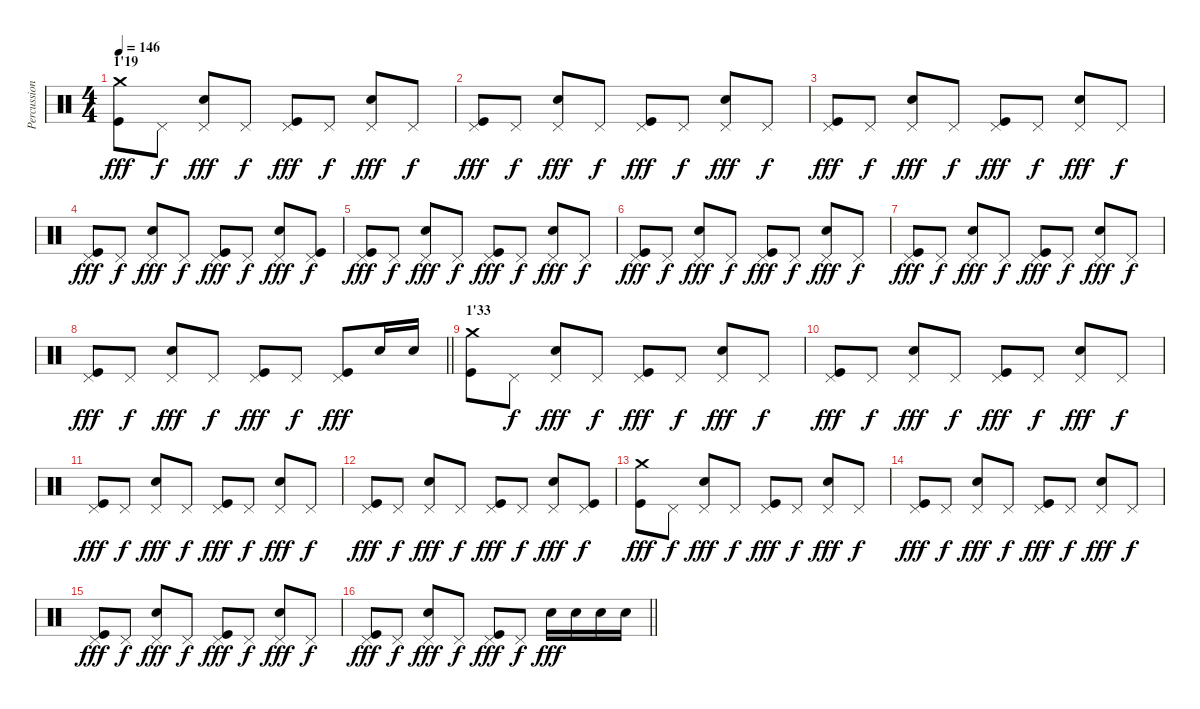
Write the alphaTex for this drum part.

\track ("Percussions" "Percussion") {instrument percussion}
\staff {score}
\articulation defaults
\ts (4 4)
\section ("" "1'19")
\tempo 146
\clef neutral
\ks c
("Crash medium (hit)" "Kick (hit)").8{dy fff} "Pedal Hi-Hat (hit)".8{dy f} ("Pedal Hi-Hat (hit)" "Snare (hit) 2").8{dy fff} "Pedal Hi-Hat (hit)".8{dy f} ("Pedal Hi-Hat (hit)" "Kick (hit)").8{dy fff} "Pedal Hi-Hat (hit)".8{dy f} ("Pedal Hi-Hat (hit)" "Snare (hit) 2").8{dy fff} "Pedal Hi-Hat (hit)".8{dy f} |
("Pedal Hi-Hat (hit)" "Kick (hit)").8{dy fff} "Pedal Hi-Hat (hit)".8{dy f} ("Pedal Hi-Hat (hit)" "Snare (hit) 2").8{dy fff} "Pedal Hi-Hat (hit)".8{dy f} ("Pedal Hi-Hat (hit)" "Kick (hit)").8{dy fff} "Pedal Hi-Hat (hit)".8{dy f} ("Pedal Hi-Hat (hit)" "Snare (hit) 2").8{dy fff} "Pedal Hi-Hat (hit)".8{dy f} |
("Pedal Hi-Hat (hit)" "Kick (hit)").8{dy fff} "Pedal Hi-Hat (hit)".8{dy f} ("Pedal Hi-Hat (hit)" "Snare (hit) 2").8{dy fff} "Pedal Hi-Hat (hit)".8{dy f} ("Pedal Hi-Hat (hit)" "Kick (hit)").8{dy fff} "Pedal Hi-Hat (hit)".8{dy f} ("Pedal Hi-Hat (hit)" "Snare (hit) 2").8{dy fff} "Pedal Hi-Hat (hit)".8{dy f} |
("Pedal Hi-Hat (hit)" "Kick (hit)").8{dy fff} "Pedal Hi-Hat (hit)".8{dy f} ("Pedal Hi-Hat (hit)" "Snare (hit) 2").8{dy fff} "Pedal Hi-Hat (hit)".8{dy f} ("Pedal Hi-Hat (hit)" "Kick (hit)").8{dy fff} "Pedal Hi-Hat (hit)".8{dy f} ("Pedal Hi-Hat (hit)" "Snare (hit) 2").8{dy fff} ("Pedal Hi-Hat (hit)" "Kick (hit)").8{dy f} |
("Pedal Hi-Hat (hit)" "Kick (hit)").8{dy fff} "Pedal Hi-Hat (hit)".8{dy f} ("Pedal Hi-Hat (hit)" "Snare (hit) 2").8{dy fff} "Pedal Hi-Hat (hit)".8{dy f} ("Pedal Hi-Hat (hit)" "Kick (hit)").8{dy fff} "Pedal Hi-Hat (hit)".8{dy f} ("Pedal Hi-Hat (hit)" "Snare (hit) 2").8{dy fff} "Pedal Hi-Hat (hit)".8{dy f} |
("Pedal Hi-Hat (hit)" "Kick (hit)").8{dy fff} "Pedal Hi-Hat (hit)".8{dy f} ("Pedal Hi-Hat (hit)" "Snare (hit) 2").8{dy fff} "Pedal Hi-Hat (hit)".8{dy f} ("Pedal Hi-Hat (hit)" "Kick (hit)").8{dy fff} "Pedal Hi-Hat (hit)".8{dy f} ("Pedal Hi-Hat (hit)" "Snare (hit) 2").8{dy fff} "Pedal Hi-Hat (hit)".8{dy f} |
("Pedal Hi-Hat (hit)" "Kick (hit)").8{dy fff} "Pedal Hi-Hat (hit)".8{dy f} ("Pedal Hi-Hat (hit)" "Snare (hit) 2").8{dy fff} "Pedal Hi-Hat (hit)".8{dy f} ("Pedal Hi-Hat (hit)" "Kick (hit)").8{dy fff} "Pedal Hi-Hat (hit)".8{dy f} ("Pedal Hi-Hat (hit)" "Snare (hit) 2").8{dy fff} "Pedal Hi-Hat (hit)".8{dy f} |
\barLineRight lightlight
("Pedal Hi-Hat (hit)" "Kick (hit)").8{dy fff} "Pedal Hi-Hat (hit)".8{dy f} ("Pedal Hi-Hat (hit)" "Snare (hit) 2").8{dy fff} "Pedal Hi-Hat (hit)".8{dy f} ("Pedal Hi-Hat (hit)" "Kick (hit)").8{dy fff} "Pedal Hi-Hat (hit)".8{dy f} ("Pedal Hi-Hat (hit)" "Kick (hit)").8{dy fff} "Snare (hit) 2".16 "Snare (hit) 2".16 |
\section ("" "1'33")
("Crash medium (hit)" "Kick (hit)").8 "Pedal Hi-Hat (hit)".8{dy f} ("Pedal Hi-Hat (hit)" "Snare (hit) 2").8{dy fff} "Pedal Hi-Hat (hit)".8{dy f} ("Pedal Hi-Hat (hit)" "Kick (hit)").8{dy fff} "Pedal Hi-Hat (hit)".8{dy f} ("Pedal Hi-Hat (hit)" "Snare (hit) 2").8{dy fff} "Pedal Hi-Hat (hit)".8{dy f} |
("Pedal Hi-Hat (hit)" "Kick (hit)").8{dy fff} "Pedal Hi-Hat (hit)".8{dy f} ("Pedal Hi-Hat (hit)" "Snare (hit) 2").8{dy fff} "Pedal Hi-Hat (hit)".8{dy f} ("Pedal Hi-Hat (hit)" "Kick (hit)").8{dy fff} "Pedal Hi-Hat (hit)".8{dy f} ("Pedal Hi-Hat (hit)" "Snare (hit) 2").8{dy fff} "Pedal Hi-Hat (hit)".8{dy f} |
("Pedal Hi-Hat (hit)" "Kick (hit)").8{dy fff} "Pedal Hi-Hat (hit)".8{dy f} ("Pedal Hi-Hat (hit)" "Snare (hit) 2").8{dy fff} "Pedal Hi-Hat (hit)".8{dy f} ("Pedal Hi-Hat (hit)" "Kick (hit)").8{dy fff} "Pedal Hi-Hat (hit)".8{dy f} ("Pedal Hi-Hat (hit)" "Snare (hit) 2").8{dy fff} "Pedal Hi-Hat (hit)".8{dy f} |
("Pedal Hi-Hat (hit)" "Kick (hit)").8{dy fff} "Pedal Hi-Hat (hit)".8{dy f} ("Pedal Hi-Hat (hit)" "Snare (hit) 2").8{dy fff} "Pedal Hi-Hat (hit)".8{dy f} ("Pedal Hi-Hat (hit)" "Kick (hit)").8{dy fff} "Pedal Hi-Hat (hit)".8{dy f} ("Pedal Hi-Hat (hit)" "Snare (hit) 2").8{dy fff} ("Pedal Hi-Hat (hit)" "Kick (hit)").8{dy f} |
("Crash medium (hit)" "Kick (hit)").8{dy fff} "Pedal Hi-Hat (hit)".8{dy f} ("Pedal Hi-Hat (hit)" "Snare (hit) 2").8{dy fff} "Pedal Hi-Hat (hit)".8{dy f} ("Pedal Hi-Hat (hit)" "Kick (hit)").8{dy fff} "Pedal Hi-Hat (hit)".8{dy f} ("Pedal Hi-Hat (hit)" "Snare (hit) 2").8{dy fff} "Pedal Hi-Hat (hit)".8{dy f} |
("Pedal Hi-Hat (hit)" "Kick (hit)").8{dy fff} "Pedal Hi-Hat (hit)".8{dy f} ("Pedal Hi-Hat (hit)" "Snare (hit) 2").8{dy fff} "Pedal Hi-Hat (hit)".8{dy f} ("Pedal Hi-Hat (hit)" "Kick (hit)").8{dy fff} "Pedal Hi-Hat (hit)".8{dy f} ("Pedal Hi-Hat (hit)" "Snare (hit) 2").8{dy fff} "Pedal Hi-Hat (hit)".8{dy f} |
("Pedal Hi-Hat (hit)" "Kick (hit)").8{dy fff} "Pedal Hi-Hat (hit)".8{dy f} ("Pedal Hi-Hat (hit)" "Snare (hit) 2").8{dy fff} "Pedal Hi-Hat (hit)".8{dy f} ("Pedal Hi-Hat (hit)" "Kick (hit)").8{dy fff} "Pedal Hi-Hat (hit)".8{dy f} ("Pedal Hi-Hat (hit)" "Snare (hit) 2").8{dy fff} "Pedal Hi-Hat (hit)".8{dy f} |
\barLineRight lightlight
("Pedal Hi-Hat (hit)" "Kick (hit)").8{dy fff} "Pedal Hi-Hat (hit)".8{dy f} ("Pedal Hi-Hat (hit)" "Snare (hit) 2").8{dy fff} "Pedal Hi-Hat (hit)".8{dy f} ("Pedal Hi-Hat (hit)" "Kick (hit)").8{dy fff} "Pedal Hi-Hat (hit)".8{dy f} "Snare (hit) 2".16{dy fff} "Snare (hit) 2".16 "Snare (hit) 2".16 "Snare (hit) 2".16
